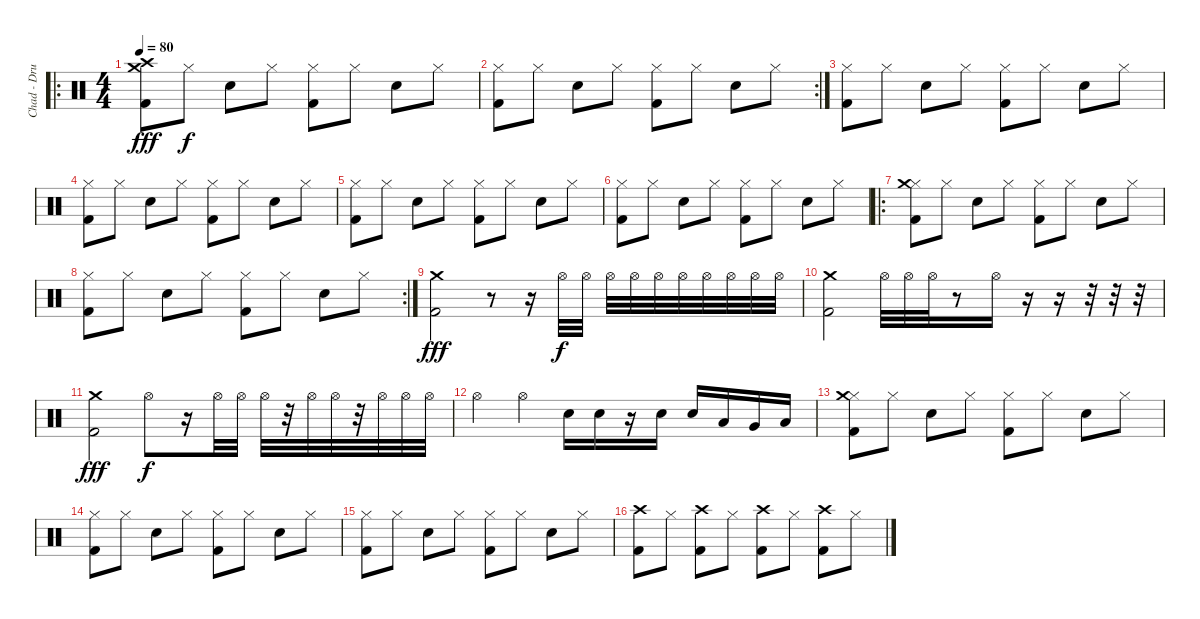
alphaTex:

\track ("Chad - Drums" "Chad - Dru") {instrument percussion}
\staff {score}
\articulation defaults
\ro
\ts (4 4)
\tempo 80
\clef neutral
\ks c
("Crash medium (hit)" "Crash high (hit)" "Kick (hit) 2").8{dy fff} "Hi-Hat (closed)".8{dy f} "Electric Snare (hit)".8 "Hi-Hat (closed)".8 ("Hi-Hat (closed)" "Kick (hit) 2").8 "Hi-Hat (closed)".8 "Electric Snare (hit)".8 "Hi-Hat (closed)".8 |
\rc 2
("Hi-Hat (closed)" "Kick (hit) 2").8 "Hi-Hat (closed)".8 "Electric Snare (hit)".8 "Hi-Hat (closed)".8 ("Hi-Hat (closed)" "Kick (hit) 2").8 "Hi-Hat (closed)".8 "Electric Snare (hit)".8 "Hi-Hat (closed)".8 |
("Hi-Hat (closed)" "Kick (hit) 2").8 "Hi-Hat (closed)".8 "Electric Snare (hit)".8 "Hi-Hat (closed)".8 ("Hi-Hat (closed)" "Kick (hit) 2").8 "Hi-Hat (closed)".8 "Electric Snare (hit)".8 "Hi-Hat (closed)".8 |
("Hi-Hat (closed)" "Kick (hit) 2").8 "Hi-Hat (closed)".8 "Electric Snare (hit)".8 "Hi-Hat (closed)".8 ("Hi-Hat (closed)" "Kick (hit) 2").8 "Hi-Hat (closed)".8 "Electric Snare (hit)".8 "Hi-Hat (closed)".8 |
("Hi-Hat (closed)" "Kick (hit) 2").8 "Hi-Hat (closed)".8 "Electric Snare (hit)".8 "Hi-Hat (closed)".8 ("Hi-Hat (closed)" "Kick (hit) 2").8 "Hi-Hat (closed)".8 "Electric Snare (hit)".8 "Hi-Hat (closed)".8 |
("Hi-Hat (closed)" "Kick (hit) 2").8 "Hi-Hat (closed)".8 "Electric Snare (hit)".8 "Hi-Hat (closed)".8 ("Hi-Hat (closed)" "Kick (hit) 2").8 "Hi-Hat (closed)".8 "Electric Snare (hit)".8 "Hi-Hat (closed)".8 |
\ro
("Hi-Hat (closed)" "Kick (hit) 2" "Crash medium (hit)").8 "Hi-Hat (closed)".8 "Electric Snare (hit)".8 "Hi-Hat (closed)".8 ("Hi-Hat (closed)" "Kick (hit) 2").8 "Hi-Hat (closed)".8 "Electric Snare (hit)".8 "Hi-Hat (closed)".8 |
\rc 2
("Hi-Hat (closed)" "Kick (hit) 2").8 "Hi-Hat (closed)".8 "Electric Snare (hit)".8 "Hi-Hat (closed)".8 ("Hi-Hat (closed)" "Kick (hit) 2").8 "Hi-Hat (closed)".8 "Electric Snare (hit)".8 "Hi-Hat (closed)".8 |
("Crash medium (hit)" "Kick (hit) 2").2{dy fff} r.8 r.16 "Hi-Hat (open)".32{dy f} "Hi-Hat (open)".32 "Hi-Hat (open)".32 "Hi-Hat (open)".32 "Hi-Hat (open)".32 "Hi-Hat (open)".32 "Hi-Hat (open)".32 "Hi-Hat (open)".32 "Hi-Hat (open)".32 "Hi-Hat (open)".32 |
("Crash medium (hit)" "Kick (hit) 2").2 "Hi-Hat (open)".32 "Hi-Hat (open)".32 "Hi-Hat (open)".32 r.8 "Hi-Hat (open)".16 r.16 r.16 r.32 r.32 r.32 |
("Crash medium (hit)" "Kick (hit) 2").2{dy fff} "Hi-Hat (open)".8{dy f} r.16 "Hi-Hat (open)".32 "Hi-Hat (open)".32 "Hi-Hat (open)".32 r.32 "Hi-Hat (open)".32 "Hi-Hat (open)".32 r.32 "Hi-Hat (open)".32 "Hi-Hat (open)".32 "Hi-Hat (open)".32 |
"Hi-Hat (open)".4 "Hi-Hat (open)".4 "Electric Snare (hit)".16 "Electric Snare (hit)".16 r.16 "Electric Snare (hit)".16 "Electric Snare (hit)".16 "Low Tom (hit)".16 "Very Low Tom (hit)".16 "Low Floor Tom (hit)".16 |
("Hi-Hat (closed)" "Kick (hit) 2" "Crash medium (hit)").8 "Hi-Hat (closed)".8 "Electric Snare (hit)".8 "Hi-Hat (closed)".8 ("Hi-Hat (closed)" "Kick (hit) 2").8 "Hi-Hat (closed)".8 "Electric Snare (hit)".8 "Hi-Hat (closed)".8 |
("Hi-Hat (closed)" "Kick (hit) 2").8 "Hi-Hat (closed)".8 "Electric Snare (hit)".8 "Hi-Hat (closed)".8 ("Hi-Hat (closed)" "Kick (hit) 2").8 "Hi-Hat (closed)".8 "Electric Snare (hit)".8 "Hi-Hat (closed)".8 |
("Hi-Hat (closed)" "Kick (hit) 2").8 "Hi-Hat (closed)".8 "Electric Snare (hit)".8 "Hi-Hat (closed)".8 ("Hi-Hat (closed)" "Kick (hit) 2").8 "Hi-Hat (closed)".8 "Electric Snare (hit)".8 "Hi-Hat (closed)".8 |
("Crash high (hit)" "Kick (hit) 2").8 "Hi-Hat (closed)".8 ("Crash high (hit)" "Kick (hit) 2").8 "Hi-Hat (closed)".8 ("Crash high (hit)" "Kick (hit) 2").8 "Hi-Hat (closed)".8 ("Crash high (hit)" "Kick (hit) 2").8 "Hi-Hat (closed)".8
